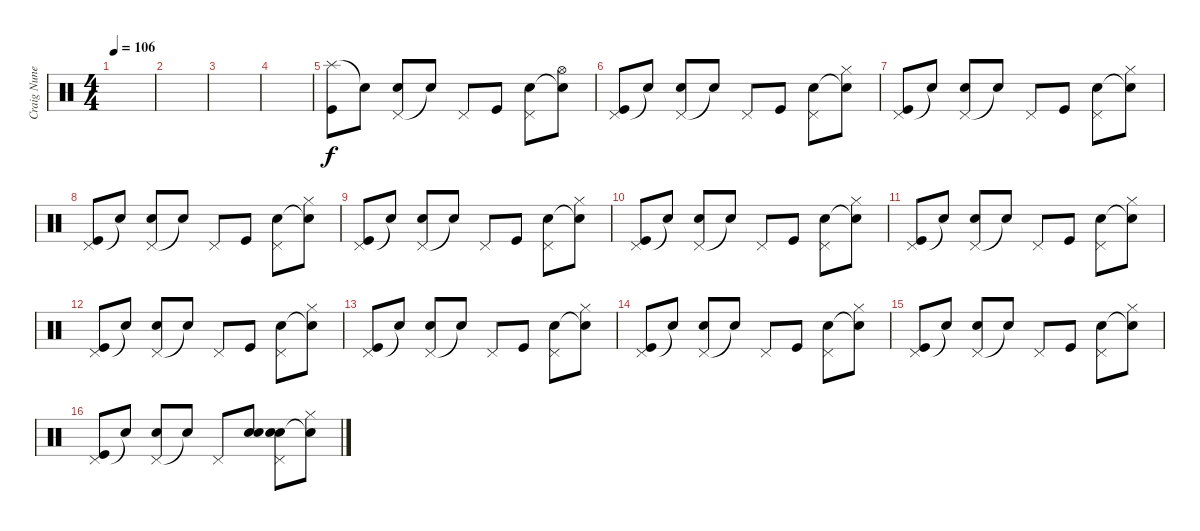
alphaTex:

\track ("Craig Nunenmacher (Drums)" "Craig Nune") {instrument percussion}
\staff {score}
\articulation defaults
\ts (4 4)
\tempo 106
\clef neutral
\ks c
|
|
|
|
("Splash (hit)" "Kick (hit)").8 "Snare (hit)"{t}.8 ("Pedal Hi-Hat (hit)" "Electric Snare (hit)").8 "Snare (hit)"{t}.8 "Pedal Hi-Hat (hit)".8 "Kick (hit)".8 ("Pedal Hi-Hat (hit)" "Electric Snare (hit)").8 ("Hi-Hat (open)" "Snare (hit)"{t}).8 |
("Pedal Hi-Hat (hit)" "Kick (hit)").8 "Snare (hit)"{t}.8 ("Pedal Hi-Hat (hit)" "Electric Snare (hit)").8 "Snare (hit)"{t}.8 "Pedal Hi-Hat (hit)".8 "Kick (hit)".8 ("Pedal Hi-Hat (hit)" "Electric Snare (hit)").8 ("Hi-Hat (closed)" "Snare (hit)"{t}).8 |
("Pedal Hi-Hat (hit)" "Kick (hit)").8 "Snare (hit)"{t}.8 ("Pedal Hi-Hat (hit)" "Electric Snare (hit)").8 "Snare (hit)"{t}.8 "Pedal Hi-Hat (hit)".8 "Kick (hit)".8 ("Pedal Hi-Hat (hit)" "Electric Snare (hit)").8 ("Hi-Hat (closed)" "Snare (hit)"{t}).8 |
("Pedal Hi-Hat (hit)" "Kick (hit)").8 "Snare (hit)"{t}.8 ("Pedal Hi-Hat (hit)" "Electric Snare (hit)").8 "Snare (hit)"{t}.8 "Pedal Hi-Hat (hit)".8 "Kick (hit)".8 ("Pedal Hi-Hat (hit)" "Electric Snare (hit)").8 ("Hi-Hat (closed)" "Snare (hit)"{t}).8 |
("Pedal Hi-Hat (hit)" "Kick (hit)").8 "Snare (hit)"{t}.8 ("Pedal Hi-Hat (hit)" "Electric Snare (hit)").8 "Snare (hit)"{t}.8 "Pedal Hi-Hat (hit)".8 "Kick (hit)".8 ("Pedal Hi-Hat (hit)" "Electric Snare (hit)").8 ("Hi-Hat (closed)" "Snare (hit)"{t}).8 |
("Pedal Hi-Hat (hit)" "Kick (hit)").8 "Snare (hit)"{t}.8 ("Pedal Hi-Hat (hit)" "Electric Snare (hit)").8 "Snare (hit)"{t}.8 "Pedal Hi-Hat (hit)".8 "Kick (hit)".8 ("Pedal Hi-Hat (hit)" "Electric Snare (hit)").8 ("Hi-Hat (closed)" "Snare (hit)"{t}).8 |
("Pedal Hi-Hat (hit)" "Kick (hit)").8 "Snare (hit)"{t}.8 ("Pedal Hi-Hat (hit)" "Electric Snare (hit)").8 "Snare (hit)"{t}.8 "Pedal Hi-Hat (hit)".8 "Kick (hit)".8 ("Pedal Hi-Hat (hit)" "Electric Snare (hit)").8 ("Hi-Hat (closed)" "Snare (hit)"{t}).8 |
("Pedal Hi-Hat (hit)" "Kick (hit)").8 "Snare (hit)"{t}.8 ("Pedal Hi-Hat (hit)" "Electric Snare (hit)").8 "Snare (hit)"{t}.8 "Pedal Hi-Hat (hit)".8 "Kick (hit)".8 ("Pedal Hi-Hat (hit)" "Electric Snare (hit)").8 ("Hi-Hat (closed)" "Snare (hit)"{t}).8 |
("Pedal Hi-Hat (hit)" "Kick (hit)").8 "Snare (hit)"{t}.8 ("Pedal Hi-Hat (hit)" "Electric Snare (hit)").8 "Snare (hit)"{t}.8 "Pedal Hi-Hat (hit)".8 "Kick (hit)".8 ("Pedal Hi-Hat (hit)" "Electric Snare (hit)").8 ("Hi-Hat (closed)" "Snare (hit)"{t}).8 |
("Pedal Hi-Hat (hit)" "Kick (hit)").8 "Snare (hit)"{t}.8 ("Pedal Hi-Hat (hit)" "Electric Snare (hit)").8 "Snare (hit)"{t}.8 "Pedal Hi-Hat (hit)".8 "Kick (hit)".8 ("Pedal Hi-Hat (hit)" "Electric Snare (hit)").8 ("Hi-Hat (closed)" "Snare (hit)"{t}).8 |
("Pedal Hi-Hat (hit)" "Kick (hit)").8 "Snare (hit)"{t}.8 ("Pedal Hi-Hat (hit)" "Electric Snare (hit)").8 "Snare (hit)"{t}.8 "Pedal Hi-Hat (hit)".8 "Kick (hit)".8 ("Pedal Hi-Hat (hit)" "Electric Snare (hit)").8 ("Hi-Hat (closed)" "Snare (hit)"{t}).8 |
("Pedal Hi-Hat (hit)" "Kick (hit)").8 "Snare (hit)"{t}.8 ("Pedal Hi-Hat (hit)" "Electric Snare (hit)").8 "Snare (hit)"{t}.8 "Pedal Hi-Hat (hit)".8 ("Electric Snare (hit)" "Electric Snare (hit)").8 ("Pedal Hi-Hat (hit)" "Electric Snare (hit)" "Electric Snare (hit)").8 ("Hi-Hat (closed)" "Snare (hit)"{t}).8
